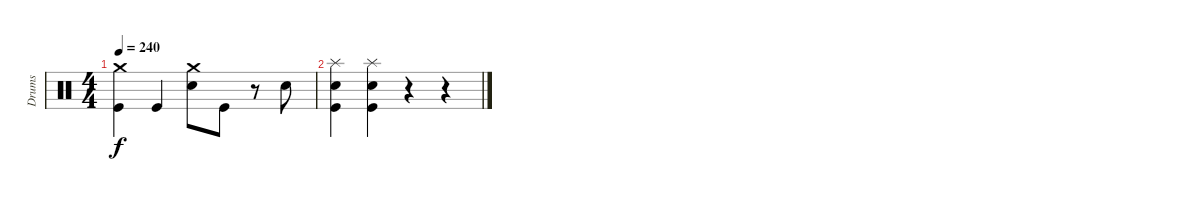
\track ("Drums" "Drums") {instrument percussion}
\staff {score}
\articulation defaults
\ts (4 4)
\tempo 240
\clef neutral
\ks c
("Crash medium (hit)" "Kick (hit)").4{dy f} "Kick (hit)".4 ("Crash medium (hit)" "Snare (hit) 2").8 "Kick (hit)".8 r.8 "Snare (hit) 2".8 |
("Splash (hit)" "Snare (hit) 2" "Kick (hit)").4 ("Splash (hit)" "Snare (hit) 2" "Kick (hit)").4 r.4 r.4
